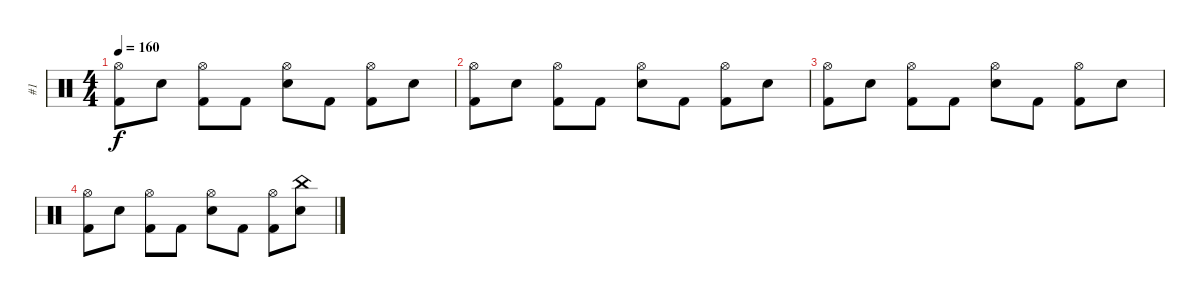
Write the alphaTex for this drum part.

\track ("#1" "#1") {instrument percussion}
\staff {score}
\articulation defaults
\ts (4 4)
\tempo 160
\clef neutral
\ks c
("Kick (hit) 2" "Hi-Hat (open)").8{dy f} "Electric Snare (hit)".8 ("Kick (hit) 2" "Hi-Hat (open)").8 "Kick (hit) 2".8 ("Electric Snare (hit)" "Hi-Hat (open)").8 "Kick (hit) 2".8 ("Kick (hit) 2" "Hi-Hat (open)").8 "Electric Snare (hit)".8 |
("Kick (hit) 2" "Hi-Hat (open)").8 "Electric Snare (hit)".8 ("Kick (hit) 2" "Hi-Hat (open)").8 "Kick (hit) 2".8 ("Electric Snare (hit)" "Hi-Hat (open)").8 "Kick (hit) 2".8 ("Kick (hit) 2" "Hi-Hat (open)").8 "Electric Snare (hit)".8 |
("Kick (hit) 2" "Hi-Hat (open)").8 "Electric Snare (hit)".8 ("Kick (hit) 2" "Hi-Hat (open)").8 "Kick (hit) 2".8 ("Electric Snare (hit)" "Hi-Hat (open)").8 "Kick (hit) 2".8 ("Kick (hit) 2" "Hi-Hat (open)").8 "Electric Snare (hit)".8 |
("Kick (hit) 2" "Hi-Hat (open)").8 "Electric Snare (hit)".8 ("Kick (hit) 2" "Hi-Hat (open)").8 "Kick (hit) 2".8 ("Electric Snare (hit)" "Hi-Hat (open)").8 "Kick (hit) 2".8 ("Kick (hit) 2" "Hi-Hat (open)").8 ("Electric Snare (hit)" "China (hit)").8
